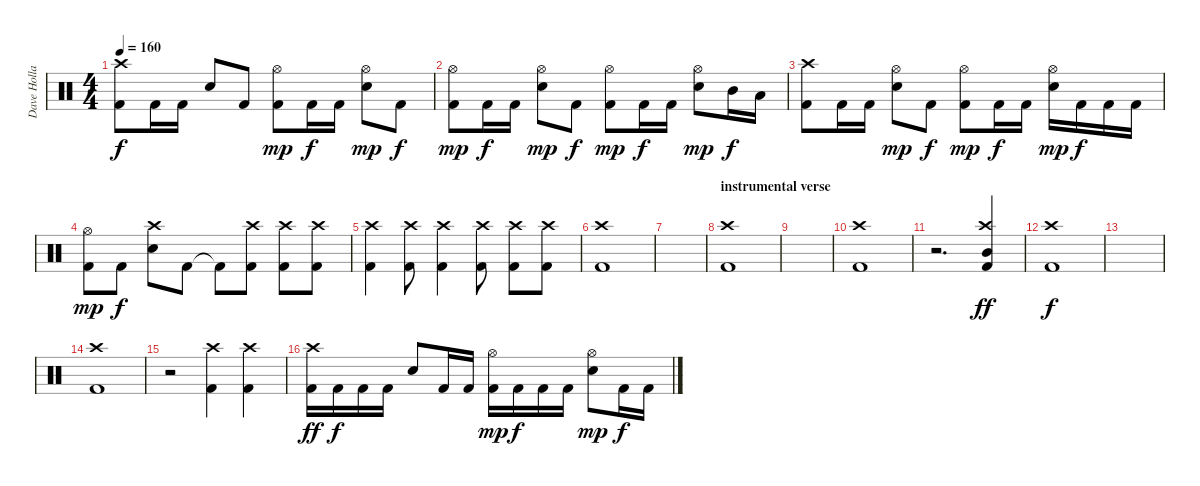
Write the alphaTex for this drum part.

\track ("Dave Holland" "Dave Holla") {instrument percussion}
\staff {score}
\articulation defaults
\ts (4 4)
\tempo 160
\clef neutral
\ks c
("Kick (hit) 2" "Crash high (hit)").8{dy f} "Kick (hit) 2".16 "Kick (hit) 2".16 "Snare (hit) 2".8 "Kick (hit) 2".8 ("Kick (hit) 2" "Hi-Hat (open)").8{dy mp} "Kick (hit) 2".16{dy f} "Kick (hit) 2".16 ("Hi-Hat (open)" "Snare (hit) 2").8{dy mp} "Kick (hit) 2".8{dy f} |
("Kick (hit) 2" "Hi-Hat (open)").8{dy mp} "Kick (hit) 2".16{dy f} "Kick (hit) 2".16 ("Hi-Hat (open)" "Snare (hit) 2").8{dy mp} "Kick (hit) 2".8{dy f} ("Kick (hit) 2" "Hi-Hat (open)").8{dy mp} "Kick (hit) 2".16{dy f} "Kick (hit) 2".16 ("Hi-Hat (open)" "Snare (hit) 2").8{dy mp} "Mid Tom (hit)".16{dy f} "Low Tom (hit)".16 |
("Kick (hit) 2" "Crash high (hit)").8 "Kick (hit) 2".16 "Kick (hit) 2".16 ("Hi-Hat (open)" "Snare (hit) 2").8{dy mp} "Kick (hit) 2".8{dy f} ("Kick (hit) 2" "Hi-Hat (open)").8{dy mp} "Kick (hit) 2".16{dy f} "Kick (hit) 2".16 ("Hi-Hat (open)" "Snare (hit) 2").16{dy mp} "Kick (hit) 2".16{dy f} "Kick (hit) 2".16 "Kick (hit) 2".16 |
("Kick (hit) 2" "Hi-Hat (open)").8{dy mp} "Kick (hit) 2".8{dy f} ("Crash high (hit)" "Snare (hit) 2").8 "Kick (hit) 2".8 "Kick (hit) 2"{t}.8 ("Kick (hit) 2" "Crash high (hit)").8 ("Kick (hit) 2" "Crash high (hit)").8 ("Kick (hit) 2" "Crash high (hit)").8 |
("Kick (hit) 2" "Crash high (hit)").4 ("Kick (hit) 2" "Crash high (hit)").8 ("Kick (hit) 2" "Crash high (hit)").4 ("Kick (hit) 2" "Crash high (hit)").8 ("Kick (hit) 2" "Crash high (hit)").8 ("Kick (hit) 2" "Crash high (hit)").8 |
("Kick (hit) 2" "Crash high (hit)").1 |
|
\section ("" "instrumental verse")
("Kick (hit) 2" "Crash high (hit)").1 |
|
("Kick (hit) 2" "Crash high (hit)").1 |
r.2{d} ("Kick (hit) 2" "Crash high (hit)" "Mid Tom (hit)").4{dy ff} |
("Kick (hit) 2" "Crash high (hit)").1{dy f} |
|
("Kick (hit) 2" "Crash high (hit)").1 |
r.2 ("Kick (hit) 2" "Crash high (hit)").4 ("Kick (hit) 2" "Crash high (hit)").4 |
("Kick (hit) 2" "Crash high (hit)").16{dy ff} "Kick (hit) 2".16{dy f} "Kick (hit) 2".16 "Kick (hit) 2".16 "Snare (hit) 2".8 "Kick (hit) 2".16 "Kick (hit) 2".16 ("Kick (hit) 2" "Hi-Hat (open)").16{dy mp} "Kick (hit) 2".16{dy f} "Kick (hit) 2".16 "Kick (hit) 2".16 ("Hi-Hat (open)" "Snare (hit) 2").8{dy mp} "Kick (hit) 2".16{dy f} "Kick (hit) 2".16
